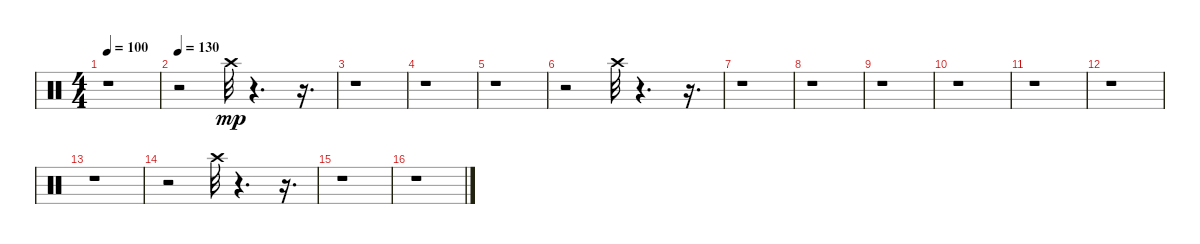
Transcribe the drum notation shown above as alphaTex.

\track "" {instrument percussion}
\staff {score}
\articulation defaults
\ts (4 4)
\tempo 100
\clef neutral
\ks c
r.1{dy mp} |
\tempo 130
r.2 "Crash high (hit)".32 r.4{d} r.16{d} |
r.1 |
r.1 |
r.1 |
r.2 "Crash high (hit)".32 r.4{d} r.16{d} |
r.1 |
r.1 |
r.1 |
r.1 |
r.1 |
r.1 |
r.1 |
r.2 "Crash high (hit)".32 r.4{d} r.16{d} |
r.1 |
r.1
